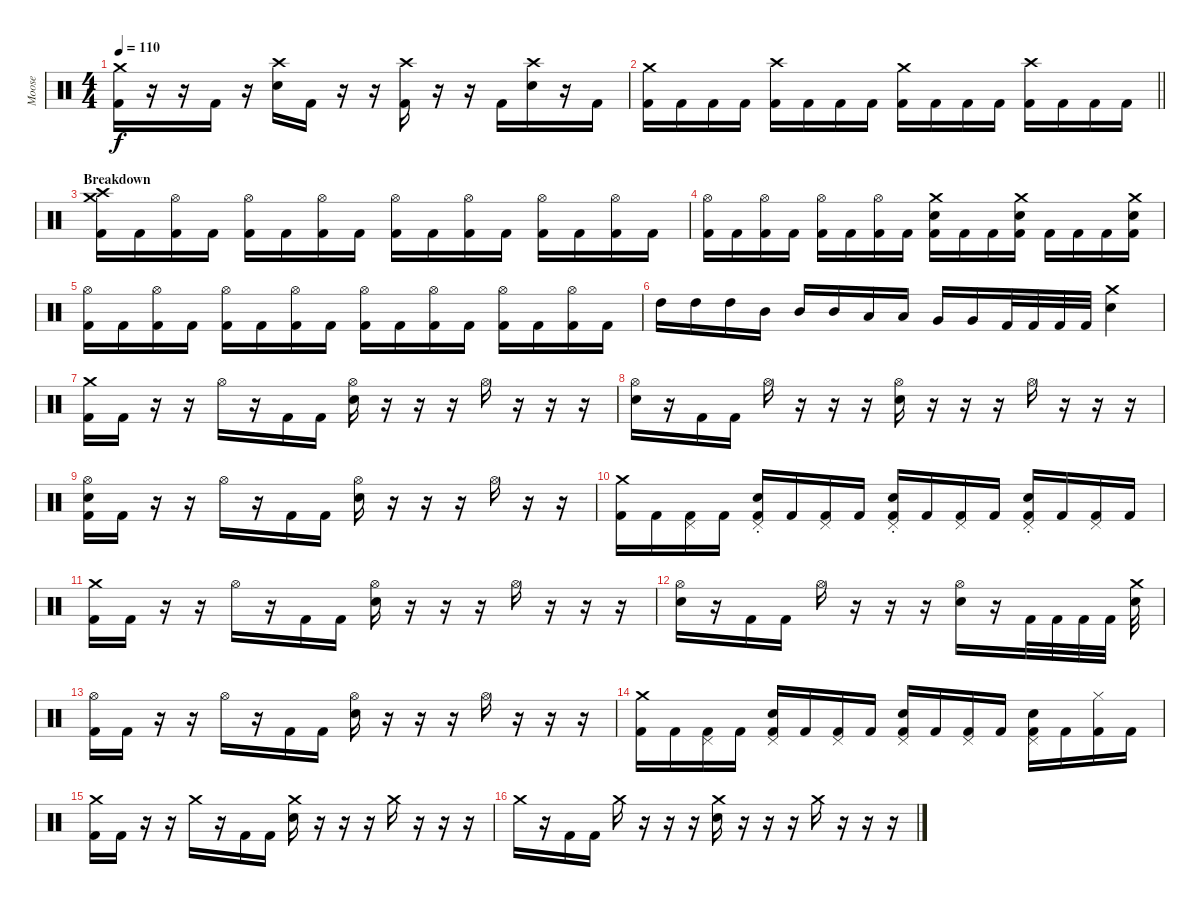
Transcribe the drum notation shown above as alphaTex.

\track ("Moose" "Moose") {instrument percussion}
\staff {score}
\articulation defaults
\ts (4 4)
\tempo 110
\clef neutral
\ks c
("Crash medium (hit)" "Kick (hit) 2").16{dy f} r.16 r.16 "Kick (hit) 2".16 r.16 ("Crash high (hit)" "Electric Snare (hit)").16 "Kick (hit) 2".16 r.16 r.16 ("Crash high (hit)" "Kick (hit) 2").16 r.16 r.16 "Kick (hit) 2".16 ("Crash high (hit)" "Electric Snare (hit)").16 r.16 "Kick (hit) 2".16 |
\barLineRight lightlight
("Crash medium (hit)" "Kick (hit) 2").16 "Kick (hit) 2".16 "Kick (hit) 2".16 "Kick (hit) 2".16 ("Crash high (hit)" "Kick (hit) 2").16 "Kick (hit) 2".16 "Kick (hit) 2".16 "Kick (hit) 2".16 ("Crash medium (hit)" "Kick (hit) 2").16 "Kick (hit) 2".16 "Kick (hit) 2".16 "Kick (hit) 2".16 ("Crash high (hit)" "Kick (hit) 2").16 "Kick (hit) 2".16 "Kick (hit) 2".16 "Kick (hit) 2".16 |
\section ("" "Breakdown")
("Crash medium (hit)" "Crash high (hit)" "Kick (hit) 2").16 "Kick (hit) 2".16 ("Hi-Hat (open)" "Kick (hit) 2").16 "Kick (hit) 2".16 ("Hi-Hat (open)" "Kick (hit) 2").16 "Kick (hit) 2".16 ("Hi-Hat (open)" "Kick (hit) 2").16 "Kick (hit) 2".16 ("Hi-Hat (open)" "Kick (hit) 2").16 "Kick (hit) 2".16 ("Hi-Hat (open)" "Kick (hit) 2").16 "Kick (hit) 2".16 ("Hi-Hat (open)" "Kick (hit) 2").16 "Kick (hit) 2".16 ("Hi-Hat (open)" "Kick (hit) 2").16 "Kick (hit) 2".16 |
("Hi-Hat (open)" "Kick (hit) 2").16 "Kick (hit) 2".16 ("Hi-Hat (open)" "Kick (hit) 2").16 "Kick (hit) 2".16 ("Hi-Hat (open)" "Kick (hit) 2").16 "Kick (hit) 2".16 ("Hi-Hat (open)" "Kick (hit) 2").16 "Kick (hit) 2".16 ("Crash medium (hit)" "Electric Snare (hit)" "Kick (hit) 2").16 "Kick (hit) 2".16 "Kick (hit) 2".16 ("Crash medium (hit)" "Electric Snare (hit)" "Kick (hit) 2").16 "Kick (hit) 2".16 "Kick (hit) 2".16 "Kick (hit) 2".16 ("Crash medium (hit)" "Electric Snare (hit)" "Kick (hit) 2").16 |
("Hi-Hat (open)" "Kick (hit) 2").16 "Kick (hit) 2".16 ("Hi-Hat (open)" "Kick (hit) 2").16 "Kick (hit) 2".16 ("Hi-Hat (open)" "Kick (hit) 2").16 "Kick (hit) 2".16 ("Hi-Hat (open)" "Kick (hit) 2").16 "Kick (hit) 2".16 ("Hi-Hat (open)" "Kick (hit) 2").16 "Kick (hit) 2".16 ("Hi-Hat (open)" "Kick (hit) 2").16 "Kick (hit) 2".16 ("Hi-Hat (open)" "Kick (hit) 2").16 "Kick (hit) 2".16 ("Hi-Hat (open)" "Kick (hit) 2").16 "Kick (hit) 2".16 |
"High Tom (hit)".16 "High Tom (hit)".16 "High Tom (hit)".16 "Mid Tom (hit)".16 "Mid Tom (hit)".16 "Mid Tom (hit)".16 "Low Tom (hit)".16 "Low Tom (hit)".16 "Very Low Tom (hit)".16 "Very Low Tom (hit)".16 "Kick (hit) 2".32 "Kick (hit) 2".32 "Kick (hit) 2".32 "Kick (hit) 2".32 ("Crash medium (hit)" "Electric Snare (hit)").4 |
("Crash medium (hit)" "Kick (hit) 2").16 "Kick (hit) 2".16 r.16 r.16 "Hi-Hat (open)".16 r.16 "Kick (hit) 2".16 "Kick (hit) 2".16 ("Hi-Hat (open)" "Electric Snare (hit)").16 r.16 r.16 r.16 "Hi-Hat (open)".16 r.16 r.16 r.16 |
("Hi-Hat (open)" "Electric Snare (hit)").16 r.16 "Kick (hit) 2".16 "Kick (hit) 2".16 "Hi-Hat (open)".16 r.16 r.16 r.16 ("Hi-Hat (open)" "Electric Snare (hit)").16 r.16 r.16 r.16 "Hi-Hat (open)".16 r.16 r.16 r.16 |
("Hi-Hat (open)" "Electric Snare (hit)" "Kick (hit) 2").16 "Kick (hit) 2".16 r.16 r.16 "Hi-Hat (open)".16 r.16 "Kick (hit) 2".16 "Kick (hit) 2".16 ("Hi-Hat (open)" "Electric Snare (hit)").16 r.16 r.16 r.16 "Hi-Hat (open)".16 r.16 r.16 |
("Crash medium (hit)" "Kick (hit) 2").16 "Kick (hit) 2".16 ("Pedal Hi-Hat (hit)" "Kick (hit) 2").16 "Kick (hit) 2".16 ("Pedal Hi-Hat (hit)"{st} "Electric Snare (hit)" "Kick (hit) 2").16 "Kick (hit) 2".16 ("Pedal Hi-Hat (hit)" "Kick (hit) 2").16 "Kick (hit) 2".16 ("Pedal Hi-Hat (hit)"{st} "Electric Snare (hit)" "Kick (hit) 2").16 "Kick (hit) 2".16 ("Pedal Hi-Hat (hit)" "Kick (hit) 2").16 "Kick (hit) 2".16 ("Pedal Hi-Hat (hit)"{st} "Electric Snare (hit)" "Kick (hit) 2").16 "Kick (hit) 2".16 ("Pedal Hi-Hat (hit)" "Kick (hit) 2").16 "Kick (hit) 2".16 |
("Crash medium (hit)" "Kick (hit) 2").16 "Kick (hit) 2".16 r.16 r.16 "Hi-Hat (open)".16 r.16 "Kick (hit) 2".16 "Kick (hit) 2".16 ("Hi-Hat (open)" "Electric Snare (hit)").16 r.16 r.16 r.16 "Hi-Hat (open)".16 r.16 r.16 r.16 |
("Hi-Hat (open)" "Electric Snare (hit)").16 r.16 "Kick (hit) 2".16 "Kick (hit) 2".16 "Hi-Hat (open)".16 r.16 r.16 r.16 ("Hi-Hat (open)" "Electric Snare (hit)").16 r.16 "Kick (hit) 2".32 "Kick (hit) 2".32 "Kick (hit) 2".32 "Kick (hit) 2".32 ("Crash medium (hit)" "Electric Snare (hit)").32 |
("Hi-Hat (open)" "Kick (hit) 2").16 "Kick (hit) 2".16 r.16 r.16 "Hi-Hat (open)".16 r.16 "Kick (hit) 2".16 "Kick (hit) 2".16 ("Hi-Hat (open)" "Electric Snare (hit)").16 r.16 r.16 r.16 "Hi-Hat (open)".16 r.16 r.16 r.16 |
("Crash medium (hit)" "Kick (hit) 2").16 "Kick (hit) 2".16 ("Pedal Hi-Hat (hit)" "Kick (hit) 2").16 "Kick (hit) 2".16 ("Pedal Hi-Hat (hit)" "Electric Snare (hit)" "Kick (hit) 2").16 "Kick (hit) 2".16 ("Pedal Hi-Hat (hit)" "Kick (hit) 2").16 "Kick (hit) 2".16 ("Pedal Hi-Hat (hit)" "Electric Snare (hit)" "Kick (hit) 2").16 "Kick (hit) 2".16 ("Pedal Hi-Hat (hit)" "Kick (hit) 2").16 "Kick (hit) 2".16 ("Pedal Hi-Hat (hit)" "Electric Snare (hit)" "Kick (hit) 2").16 "Kick (hit) 2".16 ("Hi-Hat (closed)" "Kick (hit) 2").16 "Kick (hit) 2".16 |
("Crash medium (hit)" "Kick (hit) 2").16 "Kick (hit) 2".16 r.16 r.16 "Crash medium (hit)".16 r.16 "Kick (hit) 2".16 "Kick (hit) 2".16 ("Crash medium (hit)" "Electric Snare (hit)").16 r.16 r.16 r.16 "Crash medium (hit)".16 r.16 r.16 r.16 |
"Crash medium (hit)".16 r.16 "Kick (hit) 2".16 "Kick (hit) 2".16 "Crash medium (hit)".16 r.16 r.16 r.16 ("Crash medium (hit)" "Electric Snare (hit)").16 r.16 r.16 r.16 "Crash medium (hit)".16 r.16 r.16 r.16
